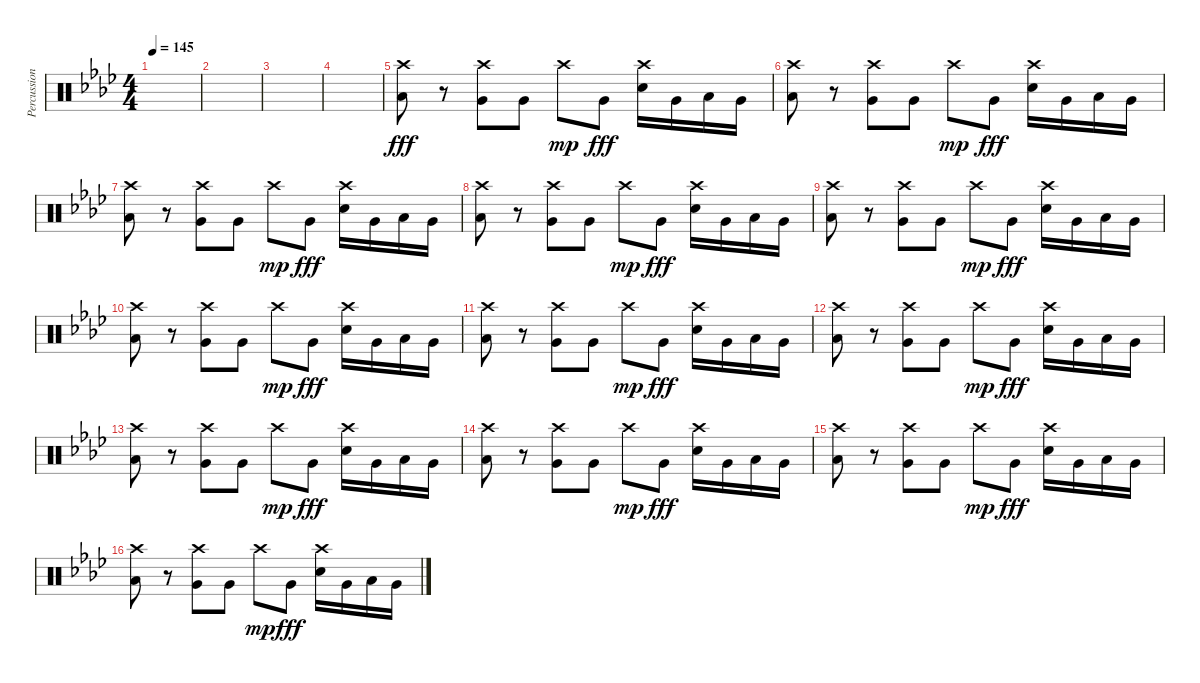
\track ("Percussion" "Percussion") {instrument percussion}
\staff {score}
\articulation defaults
\ts (4 4)
\tempo 145
\clef neutral
\ks ab
|
|
|
|
("Crash high (hit)" "Low Floor Tom (hit)").8{dy fff} r.8 ("Crash high (hit)" "Very Low Tom (hit)").8 "Very Low Tom (hit)".8 "Crash high (hit)".8{dy mp} "Very Low Tom (hit)".8{dy fff} ("Crash high (hit)" "Snare (hit) 2").16 "Very Low Tom (hit)".16 "Low Floor Tom (hit)".16 "Very Low Tom (hit)".16 |
("Crash high (hit)" "Low Floor Tom (hit)").8 r.8 ("Crash high (hit)" "Very Low Tom (hit)").8 "Very Low Tom (hit)".8 "Crash high (hit)".8{dy mp} "Very Low Tom (hit)".8{dy fff} ("Crash high (hit)" "Snare (hit) 2").16 "Very Low Tom (hit)".16 "Low Floor Tom (hit)".16 "Very Low Tom (hit)".16 |
("Crash high (hit)" "Low Floor Tom (hit)").8 r.8 ("Crash high (hit)" "Very Low Tom (hit)").8 "Very Low Tom (hit)".8 "Crash high (hit)".8{dy mp} "Very Low Tom (hit)".8{dy fff} ("Crash high (hit)" "Snare (hit) 2").16 "Very Low Tom (hit)".16 "Low Floor Tom (hit)".16 "Very Low Tom (hit)".16 |
("Crash high (hit)" "Low Floor Tom (hit)").8 r.8 ("Crash high (hit)" "Very Low Tom (hit)").8 "Very Low Tom (hit)".8 "Crash high (hit)".8{dy mp} "Very Low Tom (hit)".8{dy fff} ("Crash high (hit)" "Snare (hit) 2").16 "Very Low Tom (hit)".16 "Low Floor Tom (hit)".16 "Very Low Tom (hit)".16 |
("Crash high (hit)" "Low Floor Tom (hit)").8 r.8 ("Crash high (hit)" "Very Low Tom (hit)").8 "Very Low Tom (hit)".8 "Crash high (hit)".8{dy mp} "Very Low Tom (hit)".8{dy fff} ("Crash high (hit)" "Snare (hit) 2").16 "Very Low Tom (hit)".16 "Low Floor Tom (hit)".16 "Very Low Tom (hit)".16 |
("Crash high (hit)" "Low Floor Tom (hit)").8 r.8 ("Crash high (hit)" "Very Low Tom (hit)").8 "Very Low Tom (hit)".8 "Crash high (hit)".8{dy mp} "Very Low Tom (hit)".8{dy fff} ("Crash high (hit)" "Snare (hit) 2").16 "Very Low Tom (hit)".16 "Low Floor Tom (hit)".16 "Very Low Tom (hit)".16 |
("Crash high (hit)" "Low Floor Tom (hit)").8 r.8 ("Crash high (hit)" "Very Low Tom (hit)").8 "Very Low Tom (hit)".8 "Crash high (hit)".8{dy mp} "Very Low Tom (hit)".8{dy fff} ("Crash high (hit)" "Snare (hit) 2").16 "Very Low Tom (hit)".16 "Low Floor Tom (hit)".16 "Very Low Tom (hit)".16 |
("Crash high (hit)" "Low Floor Tom (hit)").8 r.8 ("Crash high (hit)" "Very Low Tom (hit)").8 "Very Low Tom (hit)".8 "Crash high (hit)".8{dy mp} "Very Low Tom (hit)".8{dy fff} ("Crash high (hit)" "Snare (hit) 2").16 "Very Low Tom (hit)".16 "Low Floor Tom (hit)".16 "Very Low Tom (hit)".16 |
("Crash high (hit)" "Low Floor Tom (hit)").8 r.8 ("Crash high (hit)" "Very Low Tom (hit)").8 "Very Low Tom (hit)".8 "Crash high (hit)".8{dy mp} "Very Low Tom (hit)".8{dy fff} ("Crash high (hit)" "Snare (hit) 2").16 "Very Low Tom (hit)".16 "Low Floor Tom (hit)".16 "Very Low Tom (hit)".16 |
("Crash high (hit)" "Low Floor Tom (hit)").8 r.8 ("Crash high (hit)" "Very Low Tom (hit)").8 "Very Low Tom (hit)".8 "Crash high (hit)".8{dy mp} "Very Low Tom (hit)".8{dy fff} ("Crash high (hit)" "Snare (hit) 2").16 "Very Low Tom (hit)".16 "Low Floor Tom (hit)".16 "Very Low Tom (hit)".16 |
("Crash high (hit)" "Low Floor Tom (hit)").8 r.8 ("Crash high (hit)" "Very Low Tom (hit)").8 "Very Low Tom (hit)".8 "Crash high (hit)".8{dy mp} "Very Low Tom (hit)".8{dy fff} ("Crash high (hit)" "Snare (hit) 2").16 "Very Low Tom (hit)".16 "Low Floor Tom (hit)".16 "Very Low Tom (hit)".16 |
("Crash high (hit)" "Low Floor Tom (hit)").8 r.8 ("Crash high (hit)" "Very Low Tom (hit)").8 "Very Low Tom (hit)".8 "Crash high (hit)".8{dy mp} "Very Low Tom (hit)".8{dy fff} ("Crash high (hit)" "Snare (hit) 2").16 "Very Low Tom (hit)".16 "Low Floor Tom (hit)".16 "Very Low Tom (hit)".16
